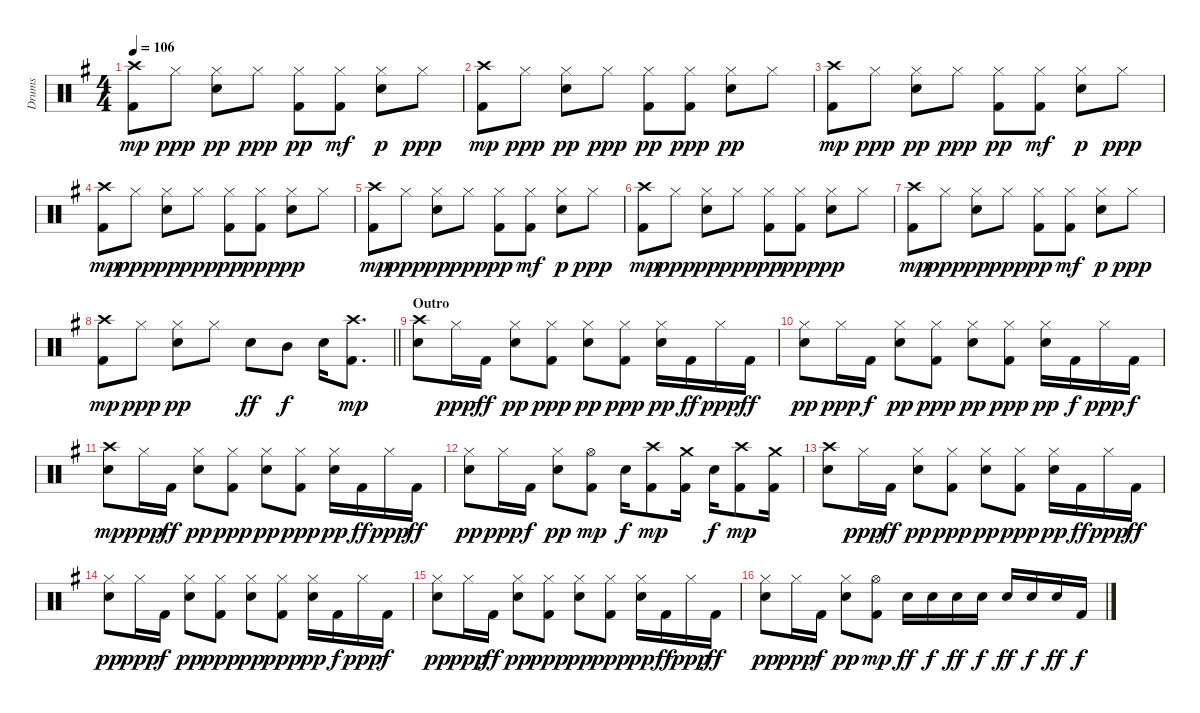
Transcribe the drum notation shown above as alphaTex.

\track ("Drums" "Drums") {instrument percussion}
\staff {score}
\articulation defaults
\ts (4 4)
\tempo 106
\clef neutral
\ks g
("Kick (hit) 2" "Crash high (hit)").8{dy mp} "Hi-Hat (closed)".8{dy ppp} ("Hi-Hat (closed)" "Electric Snare (hit)").8{dy pp} "Hi-Hat (closed)".8{dy ppp} ("Hi-Hat (closed)" "Kick (hit) 2").8{dy pp} ("Hi-Hat (closed)" "Kick (hit) 2").8{dy mf} ("Hi-Hat (closed)" "Electric Snare (hit)").8{dy p} "Hi-Hat (closed)".8{dy ppp} |
("Kick (hit) 2" "Crash high (hit)").8{dy mp} "Hi-Hat (closed)".8{dy ppp} ("Hi-Hat (closed)" "Electric Snare (hit)").8{dy pp} "Hi-Hat (closed)".8{dy ppp} ("Hi-Hat (closed)" "Kick (hit) 2").8{dy pp} ("Hi-Hat (closed)" "Kick (hit) 2").8{dy ppp} ("Hi-Hat (closed)" "Electric Snare (hit)").8{dy pp} "Hi-Hat (closed)".8 |
("Kick (hit) 2" "Crash high (hit)").8{dy mp} "Hi-Hat (closed)".8{dy ppp} ("Hi-Hat (closed)" "Electric Snare (hit)").8{dy pp} "Hi-Hat (closed)".8{dy ppp} ("Hi-Hat (closed)" "Kick (hit) 2").8{dy pp} ("Hi-Hat (closed)" "Kick (hit) 2").8{dy mf} ("Hi-Hat (closed)" "Electric Snare (hit)").8{dy p} "Hi-Hat (closed)".8{dy ppp} |
("Kick (hit) 2" "Crash high (hit)").8{dy mp} "Hi-Hat (closed)".8{dy ppp} ("Hi-Hat (closed)" "Electric Snare (hit)").8{dy pp} "Hi-Hat (closed)".8{dy ppp} ("Hi-Hat (closed)" "Kick (hit) 2").8{dy pp} ("Hi-Hat (closed)" "Kick (hit) 2").8{dy ppp} ("Hi-Hat (closed)" "Electric Snare (hit)").8{dy pp} "Hi-Hat (closed)".8 |
("Kick (hit) 2" "Crash high (hit)").8{dy mp} "Hi-Hat (closed)".8{dy ppp} ("Hi-Hat (closed)" "Electric Snare (hit)").8{dy pp} "Hi-Hat (closed)".8{dy ppp} ("Hi-Hat (closed)" "Kick (hit) 2").8{dy pp} ("Hi-Hat (closed)" "Kick (hit) 2").8{dy mf} ("Hi-Hat (closed)" "Electric Snare (hit)").8{dy p} "Hi-Hat (closed)".8{dy ppp} |
("Kick (hit) 2" "Crash high (hit)").8{dy mp} "Hi-Hat (closed)".8{dy ppp} ("Hi-Hat (closed)" "Electric Snare (hit)").8{dy pp} "Hi-Hat (closed)".8{dy ppp} ("Hi-Hat (closed)" "Kick (hit) 2").8{dy pp} ("Hi-Hat (closed)" "Kick (hit) 2").8{dy ppp} ("Hi-Hat (closed)" "Electric Snare (hit)").8{dy pp} "Hi-Hat (closed)".8 |
("Kick (hit) 2" "Crash high (hit)").8{dy mp} "Hi-Hat (closed)".8{dy ppp} ("Hi-Hat (closed)" "Electric Snare (hit)").8{dy pp} "Hi-Hat (closed)".8{dy ppp} ("Hi-Hat (closed)" "Kick (hit) 2").8{dy pp} ("Hi-Hat (closed)" "Kick (hit) 2").8{dy mf} ("Hi-Hat (closed)" "Electric Snare (hit)").8{dy p} "Hi-Hat (closed)".8{dy ppp} |
\barLineRight lightlight
("Kick (hit) 2" "Crash high (hit)").8{dy mp} "Hi-Hat (closed)".8{dy ppp} ("Hi-Hat (closed)" "Electric Snare (hit)").8{dy pp} "Hi-Hat (closed)".8 "Electric Snare (hit)".8{dy ff} "Mid Tom (hit)".8{dy f} "Electric Snare (hit)".16 ("Kick (hit) 2" "Crash high (hit)").8{d dy mp} |
\section ("" "Outro")
("Electric Snare (hit)" "Crash high (hit)").8 "Hi-Hat (closed)".16{dy ppp} "Kick (hit) 2".16{dy ff} ("Electric Snare (hit)" "Hi-Hat (closed)").8{dy pp} ("Kick (hit) 2" "Hi-Hat (closed)").8{dy ppp} ("Electric Snare (hit)" "Hi-Hat (closed)").8{dy pp} ("Kick (hit) 2" "Hi-Hat (closed)").8{dy ppp} ("Electric Snare (hit)" "Hi-Hat (closed)").16{dy pp} "Kick (hit) 2".16{dy ff} "Hi-Hat (closed)".16{dy ppp} "Kick (hit) 2".16{dy ff} |
("Electric Snare (hit)" "Hi-Hat (closed)").8{dy pp} "Hi-Hat (closed)".16{dy ppp} "Kick (hit) 2".16{dy f} ("Electric Snare (hit)" "Hi-Hat (closed)").8{dy pp} ("Kick (hit) 2" "Hi-Hat (closed)").8{dy ppp} ("Electric Snare (hit)" "Hi-Hat (closed)").8{dy pp} ("Kick (hit) 2" "Hi-Hat (closed)").8{dy ppp} ("Electric Snare (hit)" "Hi-Hat (closed)").16{dy pp} "Kick (hit) 2".16{dy f} "Hi-Hat (closed)".16{dy ppp} "Kick (hit) 2".16{dy f} |
("Electric Snare (hit)" "Crash high (hit)").8{dy mp} "Hi-Hat (closed)".16{dy ppp} "Kick (hit) 2".16{dy ff} ("Electric Snare (hit)" "Hi-Hat (closed)").8{dy pp} ("Kick (hit) 2" "Hi-Hat (closed)").8{dy ppp} ("Electric Snare (hit)" "Hi-Hat (closed)").8{dy pp} ("Kick (hit) 2" "Hi-Hat (closed)").8{dy ppp} ("Electric Snare (hit)" "Hi-Hat (closed)").16{dy pp} "Kick (hit) 2".16{dy ff} "Hi-Hat (closed)".16{dy ppp} "Kick (hit) 2".16{dy ff} |
("Electric Snare (hit)" "Hi-Hat (closed)").8{dy pp} "Hi-Hat (closed)".16{dy ppp} "Kick (hit) 2".16{dy f} ("Electric Snare (hit)" "Hi-Hat (closed)").8{dy pp} ("Kick (hit) 2" "Hi-Hat (open)").8{dy mp} "Electric Snare (hit)".16{dy f} ("Kick (hit) 2" "Crash high (hit)").8{dy mp} ("Kick (hit) 2" "Crash medium (hit)").16 "Electric Snare (hit)".16{dy f} ("Kick (hit) 2" "Crash high (hit)").8{dy mp} ("Kick (hit) 2" "Crash medium (hit)").16 |
("Electric Snare (hit)" "Crash high (hit)").8 "Hi-Hat (closed)".16{dy ppp} "Kick (hit) 2".16{dy ff} ("Electric Snare (hit)" "Hi-Hat (closed)").8{dy pp} ("Kick (hit) 2" "Hi-Hat (closed)").8{dy ppp} ("Electric Snare (hit)" "Hi-Hat (closed)").8{dy pp} ("Kick (hit) 2" "Hi-Hat (closed)").8{dy ppp} ("Electric Snare (hit)" "Hi-Hat (closed)").16{dy pp} "Kick (hit) 2".16{dy ff} "Hi-Hat (closed)".16{dy ppp} "Kick (hit) 2".16{dy ff} |
("Electric Snare (hit)" "Hi-Hat (closed)").8{dy pp} "Hi-Hat (closed)".16{dy ppp} "Kick (hit) 2".16{dy f} ("Electric Snare (hit)" "Hi-Hat (closed)").8{dy pp} ("Kick (hit) 2" "Hi-Hat (closed)").8{dy ppp} ("Electric Snare (hit)" "Hi-Hat (closed)").8{dy pp} ("Kick (hit) 2" "Hi-Hat (closed)").8{dy ppp} ("Electric Snare (hit)" "Hi-Hat (closed)").16{dy pp} "Kick (hit) 2".16{dy f} "Hi-Hat (closed)".16{dy ppp} "Kick (hit) 2".16{dy f} |
("Electric Snare (hit)" "Hi-Hat (closed)").8{dy pp} "Hi-Hat (closed)".16{dy ppp} "Kick (hit) 2".16{dy ff} ("Electric Snare (hit)" "Hi-Hat (closed)").8{dy pp} ("Kick (hit) 2" "Hi-Hat (closed)").8{dy ppp} ("Electric Snare (hit)" "Hi-Hat (closed)").8{dy pp} ("Kick (hit) 2" "Hi-Hat (closed)").8{dy ppp} ("Electric Snare (hit)" "Hi-Hat (closed)").16{dy pp} "Kick (hit) 2".16{dy ff} "Hi-Hat (closed)".16{dy ppp} "Kick (hit) 2".16{dy ff} |
("Electric Snare (hit)" "Hi-Hat (closed)").8{dy pp} "Hi-Hat (closed)".16{dy ppp} "Kick (hit) 2".16{dy f} ("Electric Snare (hit)" "Hi-Hat (closed)").8{dy pp} ("Kick (hit) 2" "Hi-Hat (open)").8{dy mp} "Electric Snare (hit)".16{dy ff} "Electric Snare (hit)".16{dy f} "Electric Snare (hit)".16{dy ff} "Electric Snare (hit)".16{dy f} "Electric Snare (hit)".16{dy ff} "Electric Snare (hit)".16{dy f} "Electric Snare (hit)".16{dy ff} "Kick (hit) 2".16{dy f}
